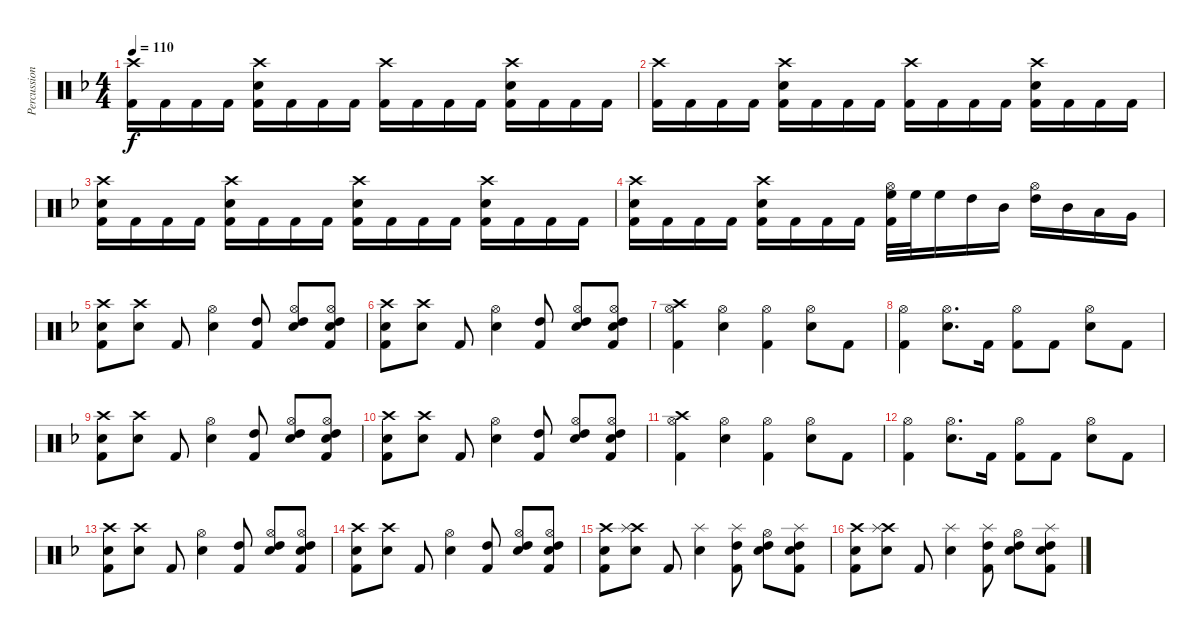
\track ("Percussion" "Percussion") {instrument percussion}
\staff {score}
\articulation defaults
\ts (4 4)
\tempo 110
\clef neutral
\ks dminor
("Crash high (hit)" "Kick (hit) 2").16{dy f} "Kick (hit) 2".16 "Kick (hit) 2".16 "Kick (hit) 2".16 ("Crash high (hit)" "Electric Snare (hit)" "Kick (hit) 2").16 "Kick (hit) 2".16 "Kick (hit) 2".16 "Kick (hit) 2".16 ("Crash high (hit)" "Kick (hit) 2").16 "Kick (hit) 2".16 "Kick (hit) 2".16 "Kick (hit) 2".16 ("Crash high (hit)" "Electric Snare (hit)" "Kick (hit) 2").16 "Kick (hit) 2".16 "Kick (hit) 2".16 "Kick (hit) 2".16 |
("Crash high (hit)" "Kick (hit) 2").16 "Kick (hit) 2".16 "Kick (hit) 2".16 "Kick (hit) 2".16 ("Crash high (hit)" "Electric Snare (hit)" "Kick (hit) 2").16 "Kick (hit) 2".16 "Kick (hit) 2".16 "Kick (hit) 2".16 ("Crash high (hit)" "Kick (hit) 2").16 "Kick (hit) 2".16 "Kick (hit) 2".16 "Kick (hit) 2".16 ("Crash high (hit)" "Electric Snare (hit)" "Kick (hit) 2").16 "Kick (hit) 2".16 "Kick (hit) 2".16 "Kick (hit) 2".16 |
("Crash high (hit)" "Electric Snare (hit)" "Kick (hit) 2").16 "Kick (hit) 2".16 "Kick (hit) 2".16 "Kick (hit) 2".16 ("Crash high (hit)" "Electric Snare (hit)" "Kick (hit) 2").16 "Kick (hit) 2".16 "Kick (hit) 2".16 "Kick (hit) 2".16 ("Crash high (hit)" "Electric Snare (hit)" "Kick (hit) 2").16 "Kick (hit) 2".16 "Kick (hit) 2".16 "Kick (hit) 2".16 ("Crash high (hit)" "Electric Snare (hit)" "Kick (hit) 2").16 "Kick (hit) 2".16 "Kick (hit) 2".16 "Kick (hit) 2".16 |
("Crash high (hit)" "Electric Snare (hit)" "Kick (hit) 2").16 "Kick (hit) 2".16 "Kick (hit) 2".16 "Kick (hit) 2".16 ("Crash high (hit)" "Electric Snare (hit)" "Kick (hit) 2").16 "Kick (hit) 2".16 "Kick (hit) 2".16 "Kick (hit) 2".16 ("Hi-Hat (open)" "High Floor Tom (hit)" "Kick (hit) 2").32 "High Floor Tom (hit)".32 "High Floor Tom (hit)".16 "High Tom (hit)".16 "Mid Tom (hit)".16 ("Hi-Hat (open)" "High Tom (hit)").16 "Mid Tom (hit)".16 "Low Tom (hit)".16 "Very Low Tom (hit)".16 |
("Crash high (hit)" "Electric Snare (hit)" "Kick (hit) 2").8 ("Crash high (hit)" "Electric Snare (hit)").8 "Kick (hit) 2".8 ("Hi-Hat (open)" "Electric Snare (hit)").4 ("High Tom (hit)" "Kick (hit) 2").8 ("Hi-Hat (open)" "Electric Snare (hit)" "High Tom (hit)").8 ("Hi-Hat (open)" "Electric Snare (hit)" "High Tom (hit)" "Kick (hit) 2").8 |
("Crash high (hit)" "Electric Snare (hit)" "Kick (hit) 2").8 ("Crash high (hit)" "Electric Snare (hit)").8 "Kick (hit) 2".8 ("Hi-Hat (open)" "Electric Snare (hit)").4 ("High Tom (hit)" "Kick (hit) 2").8 ("Hi-Hat (open)" "Electric Snare (hit)" "High Tom (hit)").8 ("Hi-Hat (open)" "Electric Snare (hit)" "High Tom (hit)" "Kick (hit) 2").8 |
("Crash high (hit)" "Hi-Hat (open)" "Kick (hit) 2").4 ("Hi-Hat (open)" "Electric Snare (hit)").4 ("Hi-Hat (open)" "Kick (hit) 2").4 ("Hi-Hat (open)" "Electric Snare (hit)").8 "Kick (hit) 2".8 |
("Hi-Hat (open)" "Kick (hit) 2").4 ("Hi-Hat (open)" "Electric Snare (hit)").8{d} "Kick (hit) 2".16 ("Hi-Hat (open)" "Kick (hit) 2").8 "Kick (hit) 2".8 ("Hi-Hat (open)" "Electric Snare (hit)").8 "Kick (hit) 2".8 |
("Crash high (hit)" "Electric Snare (hit)" "Kick (hit) 2").8 ("Crash high (hit)" "Electric Snare (hit)").8 "Kick (hit) 2".8 ("Hi-Hat (open)" "Electric Snare (hit)").4 ("High Tom (hit)" "Kick (hit) 2").8 ("Hi-Hat (open)" "Electric Snare (hit)" "High Tom (hit)").8 ("Hi-Hat (open)" "Electric Snare (hit)" "High Tom (hit)" "Kick (hit) 2").8 |
("Crash high (hit)" "Electric Snare (hit)" "Kick (hit) 2").8 ("Crash high (hit)" "Electric Snare (hit)").8 "Kick (hit) 2".8 ("Hi-Hat (open)" "Electric Snare (hit)").4 ("High Tom (hit)" "Kick (hit) 2").8 ("Hi-Hat (open)" "Electric Snare (hit)" "High Tom (hit)").8 ("Hi-Hat (open)" "Electric Snare (hit)" "High Tom (hit)" "Kick (hit) 2").8 |
("Crash high (hit)" "Hi-Hat (open)" "Kick (hit) 2").4 ("Hi-Hat (open)" "Electric Snare (hit)").4 ("Hi-Hat (open)" "Kick (hit) 2").4 ("Hi-Hat (open)" "Electric Snare (hit)").8 "Kick (hit) 2".8 |
("Hi-Hat (open)" "Kick (hit) 2").4 ("Hi-Hat (open)" "Electric Snare (hit)").8{d} "Kick (hit) 2".16 ("Hi-Hat (open)" "Kick (hit) 2").8 "Kick (hit) 2".8 ("Hi-Hat (open)" "Electric Snare (hit)").8 "Kick (hit) 2".8 |
("Crash high (hit)" "Electric Snare (hit)" "Kick (hit) 2").8 ("Crash high (hit)" "Electric Snare (hit)").8 "Kick (hit) 2".8 ("Hi-Hat (open)" "Electric Snare (hit)").4 ("High Tom (hit)" "Kick (hit) 2").8 ("Hi-Hat (open)" "Electric Snare (hit)" "High Tom (hit)").8 ("Hi-Hat (open)" "Electric Snare (hit)" "High Tom (hit)" "Kick (hit) 2").8 |
("Crash high (hit)" "Electric Snare (hit)" "Kick (hit) 2").8 ("Crash high (hit)" "Electric Snare (hit)").8 "Kick (hit) 2".8 ("Hi-Hat (open)" "Electric Snare (hit)").4 ("High Tom (hit)" "Kick (hit) 2").8 ("Hi-Hat (open)" "Electric Snare (hit)" "High Tom (hit)").8 ("Hi-Hat (open)" "Electric Snare (hit)" "High Tom (hit)" "Kick (hit) 2").8 |
("Crash high (hit)" "Electric Snare (hit)" "Kick (hit) 2").8 ("Crash high (hit)" "Splash (hit)" "Electric Snare (hit)").8 "Kick (hit) 2".8 ("Splash (hit)" "Electric Snare (hit)").4 ("Splash (hit)" "High Tom (hit)" "Kick (hit) 2").8 ("Hi-Hat (open)" "Electric Snare (hit)" "High Tom (hit)").8 ("Splash (hit)" "Electric Snare (hit)" "High Tom (hit)" "Kick (hit) 2").8 |
("Crash high (hit)" "Electric Snare (hit)" "Kick (hit) 2").8 ("Crash high (hit)" "Splash (hit)" "Electric Snare (hit)").8 "Kick (hit) 2".8 ("Splash (hit)" "Electric Snare (hit)").4 ("Splash (hit)" "High Tom (hit)" "Kick (hit) 2").8 ("Hi-Hat (open)" "Electric Snare (hit)" "High Tom (hit)").8 ("Splash (hit)" "Electric Snare (hit)" "High Tom (hit)" "Kick (hit) 2").8
